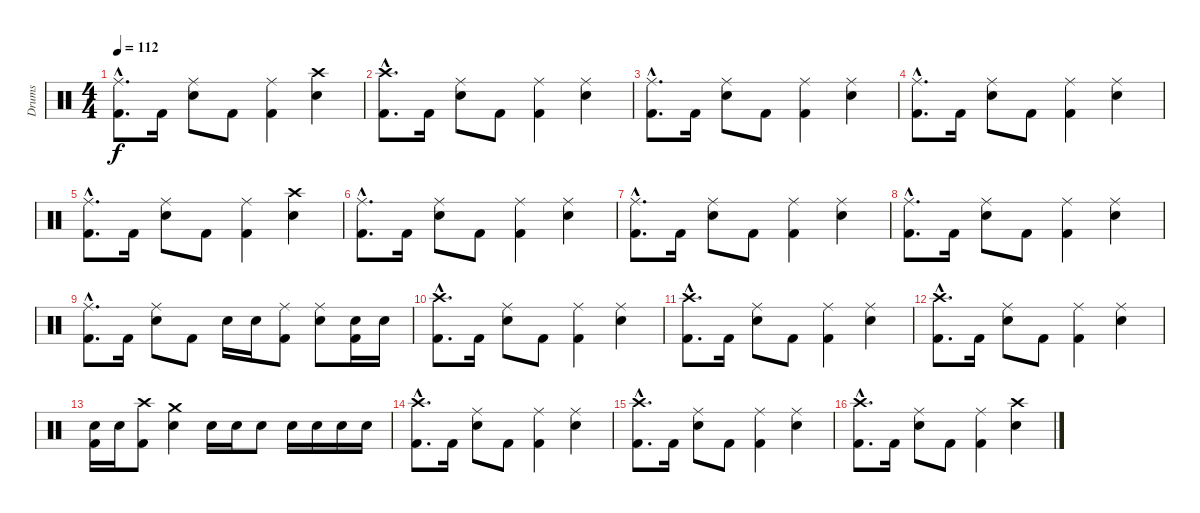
\track ("Drums" "Drums") {instrument percussion}
\staff {score}
\articulation defaults
\ts (4 4)
\tempo 112
\clef neutral
\ks c
("Ride (middle)"{hac} "Kick (hit) 2"{hac}).8{d dy f} "Kick (hit) 2".16 ("Ride (middle)" "Electric Snare (hit)").8 "Kick (hit) 2".8 ("Ride (middle)" "Kick (hit) 2").4 ("Crash high (hit)" "Electric Snare (hit)").4 |
("Crash high (hit)"{hac} "Kick (hit) 2"{hac}).8{d} "Kick (hit) 2".16 ("Ride (middle)" "Electric Snare (hit)").8 "Kick (hit) 2".8 ("Ride (middle)" "Kick (hit) 2").4 ("Ride (middle)" "Electric Snare (hit)").4 |
("Ride (middle)"{hac} "Kick (hit) 2"{hac}).8{d} "Kick (hit) 2".16 ("Ride (middle)" "Electric Snare (hit)").8 "Kick (hit) 2".8 ("Ride (middle)" "Kick (hit) 2").4 ("Ride (middle)" "Electric Snare (hit)").4 |
("Ride (middle)"{hac} "Kick (hit) 2"{hac}).8{d} "Kick (hit) 2".16 ("Ride (middle)" "Electric Snare (hit)").8 "Kick (hit) 2".8 ("Ride (middle)" "Kick (hit) 2").4 ("Ride (middle)" "Electric Snare (hit)").4 |
("Ride (middle)"{hac} "Kick (hit) 2"{hac}).8{d} "Kick (hit) 2".16 ("Ride (middle)" "Electric Snare (hit)").8 "Kick (hit) 2".8 ("Ride (middle)" "Kick (hit) 2").4 ("Crash high (hit)" "Electric Snare (hit)").4 |
("Ride (middle)"{hac} "Kick (hit) 2"{hac}).8{d} "Kick (hit) 2".16 ("Ride (middle)" "Electric Snare (hit)").8 "Kick (hit) 2".8 ("Ride (middle)" "Kick (hit) 2").4 ("Ride (middle)" "Electric Snare (hit)").4 |
("Ride (middle)"{hac} "Kick (hit) 2"{hac}).8{d} "Kick (hit) 2".16 ("Ride (middle)" "Electric Snare (hit)").8 "Kick (hit) 2".8 ("Ride (middle)" "Kick (hit) 2").4 ("Ride (middle)" "Electric Snare (hit)").4 |
("Ride (middle)"{hac} "Kick (hit) 2"{hac}).8{d} "Kick (hit) 2".16 ("Ride (middle)" "Electric Snare (hit)").8 "Kick (hit) 2".8 ("Ride (middle)" "Kick (hit) 2").4 ("Ride (middle)" "Electric Snare (hit)").4 |
("Ride (middle)"{hac} "Kick (hit) 2"{hac}).8{d} "Kick (hit) 2".16 ("Ride (middle)" "Electric Snare (hit)").8 "Kick (hit) 2".8 "Electric Snare (hit)".16 "Electric Snare (hit)".16 ("Ride (middle)" "Kick (hit) 2").8 ("Ride (middle)" "Electric Snare (hit)").8 ("Electric Snare (hit)" "Kick (hit) 2").16 "Electric Snare (hit)".16 |
("Crash high (hit)"{hac} "Kick (hit) 2"{hac}).8{d} "Kick (hit) 2".16 ("Ride (middle)" "Electric Snare (hit)").8 "Kick (hit) 2".8 ("Ride (middle)" "Kick (hit) 2").4 ("Ride (middle)" "Electric Snare (hit)").4 |
("Crash high (hit)"{hac} "Kick (hit) 2"{hac}).8{d} "Kick (hit) 2".16 ("Ride (middle)" "Electric Snare (hit)").8 "Kick (hit) 2".8 ("Ride (middle)" "Kick (hit) 2").4 ("Ride (middle)" "Electric Snare (hit)").4 |
("Crash high (hit)"{hac} "Kick (hit) 2"{hac}).8{d} "Kick (hit) 2".16 ("Ride (middle)" "Electric Snare (hit)").8 "Kick (hit) 2".8 ("Ride (middle)" "Kick (hit) 2").4 ("Ride (middle)" "Electric Snare (hit)").4 |
("Electric Snare (hit)" "Kick (hit) 2").16 "Electric Snare (hit)".16 ("Crash high (hit)" "Kick (hit) 2").8 ("Crash medium (hit)" "Electric Snare (hit)").4 "Electric Snare (hit)".16 "Electric Snare (hit)".16 "Electric Snare (hit)".8 "Electric Snare (hit)".16 "Electric Snare (hit)".16 "Electric Snare (hit)".16 "Electric Snare (hit)".16 |
("Crash high (hit)"{hac} "Kick (hit) 2"{hac}).8{d} "Kick (hit) 2".16 ("Ride (middle)" "Electric Snare (hit)").8 "Kick (hit) 2".8 ("Ride (middle)" "Kick (hit) 2").4 ("Ride (middle)" "Electric Snare (hit)").4 |
("Crash high (hit)"{hac} "Kick (hit) 2"{hac}).8{d} "Kick (hit) 2".16 ("Ride (middle)" "Electric Snare (hit)").8 "Kick (hit) 2".8 ("Ride (middle)" "Kick (hit) 2").4 ("Ride (middle)" "Electric Snare (hit)").4 |
("Crash high (hit)"{hac} "Kick (hit) 2"{hac}).8{d} "Kick (hit) 2".16 ("Ride (middle)" "Electric Snare (hit)").8 "Kick (hit) 2".8 ("Ride (middle)" "Kick (hit) 2").4 ("Crash high (hit)" "Electric Snare (hit)").4
